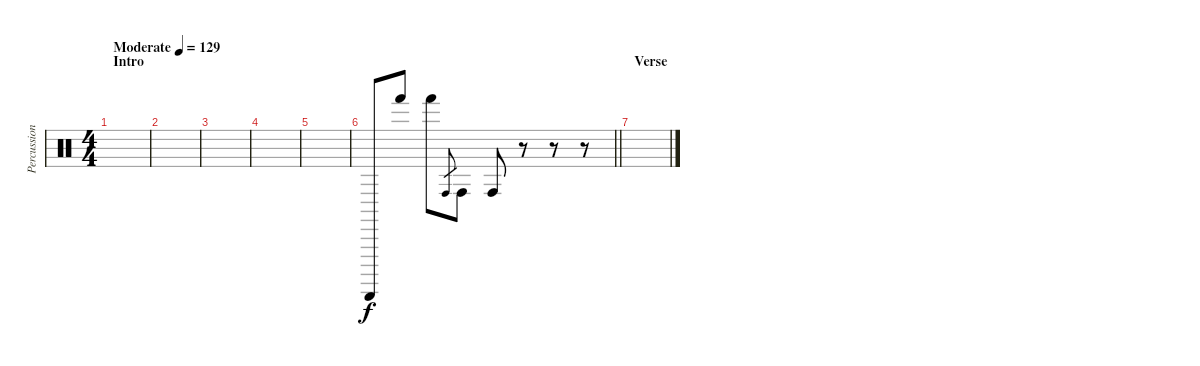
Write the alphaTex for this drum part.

\track ("Percussion" "Percussion") {instrument percussion}
\staff {score}
\articulation defaults
\ts (4 4)
\section ("" "Intro")
\tempo (129 "Moderate")
\clef neutral
\ks c
|
|
|
|
|
\barLineRight lightlight "Guiro (scrap-return)".8 "Hand (hit)".8 "Hand (hit)".8 "Conga high (hit)".8{gr} "Conga high (hit)".8 "Conga high (hit)".8
r.8 r.8 r.8 |
\section ("" "Verse")
